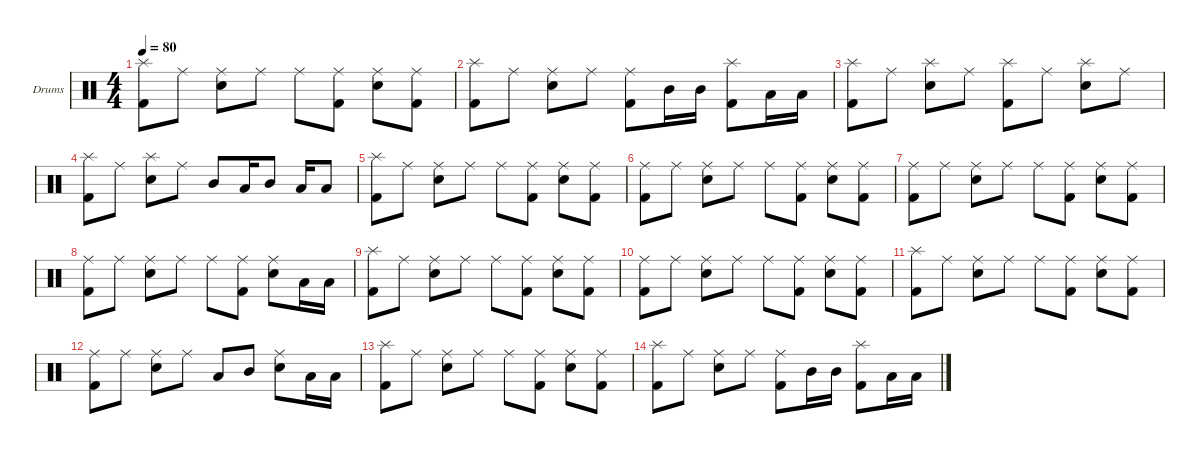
\hideDynamics
\bracketExtendMode nobrackets
\firstSystemTrackNameOrientation horizontal
\otherSystemsTrackNameOrientation horizontal
\track ("Drumkit" "Drums") {instrument percussion}
\staff {score}
\articulation defaults
\ts (4 4)
\tempo 80
\clef neutral
\ks c
("Splash (hit)" "Kick (hit) 2").8{dy f} "Ride (middle)".8 ("Ride (middle)" "Snare (hit) 2").8 "Ride (middle)".8 "Ride (middle)".8 ("Ride (middle)" "Kick (hit) 2").8 ("Ride (middle)" "Snare (hit) 2").8 ("Ride (middle)" "Kick (hit) 2").8 |
("Splash (hit)" "Kick (hit) 2").8 "Ride (middle)".8 ("Ride (middle)" "Snare (hit) 2").8 "Ride (middle)".8 ("Ride (middle)" "Kick (hit) 2").8 "Mid Tom (hit)".16 "Mid Tom (hit)".16 ("Splash (hit)" "Kick (hit) 2").8 "Low Tom (hit)".16 "Low Tom (hit)".16 |
("Splash (hit)" "Kick (hit) 2").8 "Ride (middle)".8 ("Splash (hit)" "Snare (hit) 2").8 "Ride (middle)".8 ("Splash (hit)" "Kick (hit) 2").8 "Ride (middle)".8 ("Splash (hit)" "Snare (hit) 2").8 "Ride (middle)".8 |
("Splash (hit)" "Kick (hit) 2").8 "Ride (middle)".8 ("Splash (hit)" "Snare (hit) 2").8 "Ride (middle)".8 "Mid Tom (hit)".8 "Low Tom (hit)".16 "Mid Tom (hit)".8 "Low Tom (hit)".16 "Low Tom (hit)".8 |
("Splash (hit)" "Kick (hit) 2").8{dy mf} "Ride (middle)".8 ("Ride (middle)" "Snare (hit) 2").8 "Ride (middle)".8 "Ride (middle)".8 ("Ride (middle)" "Kick (hit) 2").8 ("Ride (middle)" "Snare (hit) 2").8 ("Ride (middle)" "Kick (hit) 2").8 |
("Ride (middle)" "Kick (hit) 2").8 "Ride (middle)".8 ("Ride (middle)" "Snare (hit) 2").8 "Ride (middle)".8 "Ride (middle)".8 ("Ride (middle)" "Kick (hit) 2").8 ("Ride (middle)" "Snare (hit) 2").8 ("Ride (middle)" "Kick (hit) 2").8 |
("Ride (middle)" "Kick (hit) 2").8{dy mp} "Ride (middle)".8 ("Ride (middle)" "Snare (hit) 2").8 "Ride (middle)".8 "Ride (middle)".8 ("Ride (middle)" "Kick (hit) 2").8 ("Ride (middle)" "Snare (hit) 2").8 ("Ride (middle)" "Kick (hit) 2").8 |
("Ride (middle)" "Kick (hit) 2").8 "Ride (middle)".8 ("Ride (middle)" "Snare (hit) 2").8 "Ride (middle)".8 "Ride (middle)".8 ("Ride (middle)" "Kick (hit) 2").8 ("Ride (middle)" "Snare (hit) 2").8 "Low Tom (hit)".16 "Low Tom (hit)".16 |
("Splash (hit)" "Kick (hit) 2").8{dy p} "Ride (middle)".8 ("Ride (middle)" "Snare (hit) 2").8 "Ride (middle)".8 "Ride (middle)".8 ("Ride (middle)" "Kick (hit) 2").8 ("Ride (middle)" "Snare (hit) 2").8 ("Ride (middle)" "Kick (hit) 2").8 |
("Ride (middle)" "Kick (hit) 2").8 "Ride (middle)".8 ("Ride (middle)" "Snare (hit) 2").8 "Ride (middle)".8 "Ride (middle)".8 ("Ride (middle)" "Kick (hit) 2").8 ("Ride (middle)" "Snare (hit) 2").8 ("Ride (middle)" "Kick (hit) 2").8 |
("Splash (hit)" "Kick (hit) 2").8{dy pp} "Ride (middle)".8 ("Ride (middle)" "Snare (hit) 2").8 "Ride (middle)".8 "Ride (middle)".8 ("Ride (middle)" "Kick (hit) 2").8 ("Ride (middle)" "Snare (hit) 2").8 ("Ride (middle)" "Kick (hit) 2").8 |
("Ride (middle)" "Kick (hit) 2").8 "Ride (middle)".8 ("Ride (middle)" "Snare (hit) 2").8 "Ride (middle)".8 "Low Tom (hit)".8 "Mid Tom (hit)".8 ("Ride (middle)" "Snare (hit) 2").8 "Low Tom (hit)".16 "Low Tom (hit)".16 |
("Splash (hit)" "Kick (hit) 2").8{dy ppp} "Ride (middle)".8 ("Ride (middle)" "Snare (hit) 2").8 "Ride (middle)".8 "Ride (middle)".8 ("Ride (middle)" "Kick (hit) 2").8 ("Ride (middle)" "Snare (hit) 2").8 ("Ride (middle)" "Kick (hit) 2").8 |
("Splash (hit)" "Kick (hit) 2").8 "Ride (middle)".8 ("Ride (middle)" "Snare (hit) 2").8 "Ride (middle)".8 ("Ride (middle)" "Kick (hit) 2").8 "Mid Tom (hit)".16 "Mid Tom (hit)".16 ("Splash (hit)" "Kick (hit) 2").8 "Low Tom (hit)".16 "Low Tom (hit)".16
